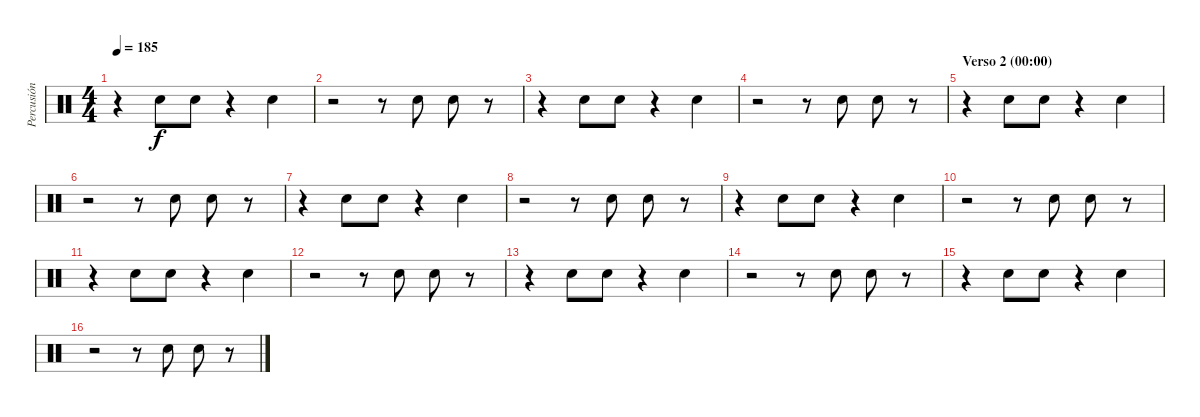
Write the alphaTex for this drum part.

\track ("Percusión" "Percusión") {instrument percussion}
\staff {score}
\articulation defaults
\ts (4 4)
\tempo 185
\clef neutral
\ks c
r.4{dy f} "Hand Clap (hit)".8 "Hand Clap (hit)".8 r.4 "Hand Clap (hit)".4 |
r.2 r.8 "Hand Clap (hit)".8 "Hand Clap (hit)".8 r.8 |
r.4 "Hand Clap (hit)".8 "Hand Clap (hit)".8 r.4 "Hand Clap (hit)".4 |
r.2 r.8 "Hand Clap (hit)".8 "Hand Clap (hit)".8 r.8 |
\section ("" "Verso 2 (00:00)")
r.4 "Hand Clap (hit)".8 "Hand Clap (hit)".8 r.4 "Hand Clap (hit)".4 |
r.2 r.8 "Hand Clap (hit)".8 "Hand Clap (hit)".8 r.8 |
r.4 "Hand Clap (hit)".8 "Hand Clap (hit)".8 r.4 "Hand Clap (hit)".4 |
r.2 r.8 "Hand Clap (hit)".8 "Hand Clap (hit)".8 r.8 |
r.4 "Hand Clap (hit)".8 "Hand Clap (hit)".8 r.4 "Hand Clap (hit)".4 |
r.2 r.8 "Hand Clap (hit)".8 "Hand Clap (hit)".8 r.8 |
r.4 "Hand Clap (hit)".8 "Hand Clap (hit)".8 r.4 "Hand Clap (hit)".4 |
r.2 r.8 "Hand Clap (hit)".8 "Hand Clap (hit)".8 r.8 |
r.4 "Hand Clap (hit)".8 "Hand Clap (hit)".8 r.4 "Hand Clap (hit)".4 |
r.2 r.8 "Hand Clap (hit)".8 "Hand Clap (hit)".8 r.8 |
r.4 "Hand Clap (hit)".8 "Hand Clap (hit)".8 r.4 "Hand Clap (hit)".4 |
r.2 r.8 "Hand Clap (hit)".8 "Hand Clap (hit)".8 r.8
